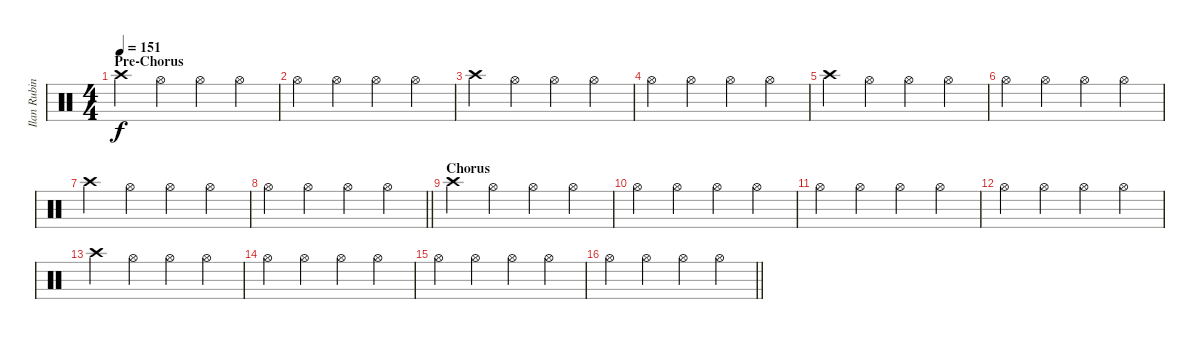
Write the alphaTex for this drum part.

\track ("Ilan Rubin [Drums]" "Ilan Rubin") {instrument percussion}
\staff {score}
\articulation defaults
\ts (4 4)
\section ("" "Pre-Chorus")
\tempo 151
\clef neutral
\ks c "Crash high (hit)".4{dy f} "Hi-Hat (open)".4 "Hi-Hat (open)".4 "Hi-Hat (open)".4
|
"Hi-Hat (open)".4 "Hi-Hat (open)".4 "Hi-Hat (open)".4 "Hi-Hat (open)".4 |
"Crash high (hit)".4 "Hi-Hat (open)".4 "Hi-Hat (open)".4 "Hi-Hat (open)".4 |
"Hi-Hat (open)".4 "Hi-Hat (open)".4 "Hi-Hat (open)".4 "Hi-Hat (open)".4 |
"Crash high (hit)".4 "Hi-Hat (open)".4 "Hi-Hat (open)".4 "Hi-Hat (open)".4 |
"Hi-Hat (open)".4 "Hi-Hat (open)".4 "Hi-Hat (open)".4 "Hi-Hat (open)".4 |
"Crash high (hit)".4 "Hi-Hat (open)".4 "Hi-Hat (open)".4 "Hi-Hat (open)".4 |
\barLineRight lightlight "Hi-Hat (open)".4 "Hi-Hat (open)".4 "Hi-Hat (open)".4 "Hi-Hat (open)".4
|
\section ("" "Chorus")
"Crash high (hit)".4 "Hi-Hat (open)".4 "Hi-Hat (open)".4 "Hi-Hat (open)".4 |
"Hi-Hat (open)".4 "Hi-Hat (open)".4 "Hi-Hat (open)".4 "Hi-Hat (open)".4 |
"Hi-Hat (open)".4 "Hi-Hat (open)".4 "Hi-Hat (open)".4 "Hi-Hat (open)".4 |
"Hi-Hat (open)".4 "Hi-Hat (open)".4 "Hi-Hat (open)".4 "Hi-Hat (open)".4 |
"Crash high (hit)".4 "Hi-Hat (open)".4 "Hi-Hat (open)".4 "Hi-Hat (open)".4 |
"Hi-Hat (open)".4 "Hi-Hat (open)".4 "Hi-Hat (open)".4 "Hi-Hat (open)".4 |
"Hi-Hat (open)".4 "Hi-Hat (open)".4 "Hi-Hat (open)".4 "Hi-Hat (open)".4 |
\barLineRight lightlight "Hi-Hat (open)".4 "Hi-Hat (open)".4 "Hi-Hat (open)".4 "Hi-Hat (open)".4
